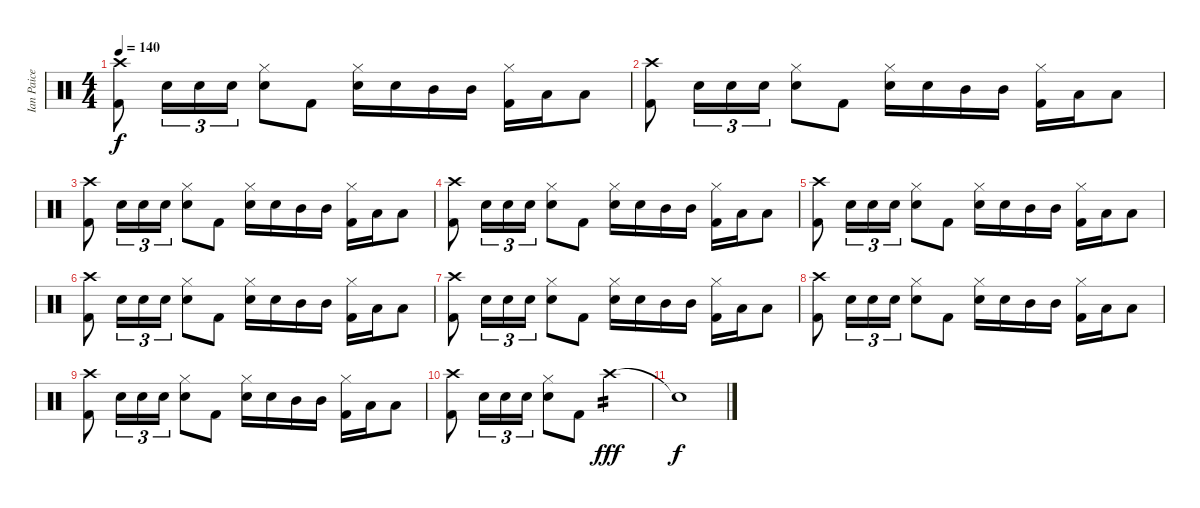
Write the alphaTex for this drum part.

\track ("Ian Paice" "Ian Paice") {instrument percussion}
\staff {score}
\articulation defaults
\ts (4 4)
\tempo 140
\clef neutral
\ks c
("Crash high (hit)" "Kick (hit) 2").8{dy f} "Snare (hit) 2".16{tu (3 2)} "Snare (hit) 2".16{tu (3 2)} "Snare (hit) 2".16{tu (3 2)} ("Hi-Hat (closed)" "Snare (hit) 2").8 "Kick (hit) 2".8 ("Hi-Hat (closed)" "Snare (hit) 2").16 "Snare (hit) 2".16 "Mid Tom (hit)".16 "Mid Tom (hit)".16 ("Hi-Hat (closed)" "Kick (hit) 2").16 "Low Tom (hit)".16 "Low Tom (hit)".8 |
("Crash high (hit)" "Kick (hit) 2").8 "Snare (hit) 2".16{tu (3 2)} "Snare (hit) 2".16{tu (3 2)} "Snare (hit) 2".16{tu (3 2)} ("Hi-Hat (closed)" "Snare (hit) 2").8 "Kick (hit) 2".8 ("Hi-Hat (closed)" "Snare (hit) 2").16 "Snare (hit) 2".16 "Mid Tom (hit)".16 "Mid Tom (hit)".16 ("Hi-Hat (closed)" "Kick (hit) 2").16 "Low Tom (hit)".16 "Low Tom (hit)".8 |
("Crash high (hit)" "Kick (hit) 2").8 "Snare (hit) 2".16{tu (3 2)} "Snare (hit) 2".16{tu (3 2)} "Snare (hit) 2".16{tu (3 2)} ("Hi-Hat (closed)" "Snare (hit) 2").8 "Kick (hit) 2".8 ("Hi-Hat (closed)" "Snare (hit) 2").16 "Snare (hit) 2".16 "Mid Tom (hit)".16 "Mid Tom (hit)".16 ("Hi-Hat (closed)" "Kick (hit) 2").16 "Low Tom (hit)".16 "Low Tom (hit)".8 |
("Crash high (hit)" "Kick (hit) 2").8 "Snare (hit) 2".16{tu (3 2)} "Snare (hit) 2".16{tu (3 2)} "Snare (hit) 2".16{tu (3 2)} ("Hi-Hat (closed)" "Snare (hit) 2").8 "Kick (hit) 2".8 ("Hi-Hat (closed)" "Snare (hit) 2").16 "Snare (hit) 2".16 "Mid Tom (hit)".16 "Mid Tom (hit)".16 ("Hi-Hat (closed)" "Kick (hit) 2").16 "Low Tom (hit)".16 "Low Tom (hit)".8 |
("Crash high (hit)" "Kick (hit) 2").8 "Snare (hit) 2".16{tu (3 2)} "Snare (hit) 2".16{tu (3 2)} "Snare (hit) 2".16{tu (3 2)} ("Hi-Hat (closed)" "Snare (hit) 2").8 "Kick (hit) 2".8 ("Hi-Hat (closed)" "Snare (hit) 2").16 "Snare (hit) 2".16 "Mid Tom (hit)".16 "Mid Tom (hit)".16 ("Hi-Hat (closed)" "Kick (hit) 2").16 "Low Tom (hit)".16 "Low Tom (hit)".8 |
("Crash high (hit)" "Kick (hit) 2").8 "Snare (hit) 2".16{tu (3 2)} "Snare (hit) 2".16{tu (3 2)} "Snare (hit) 2".16{tu (3 2)} ("Hi-Hat (closed)" "Snare (hit) 2").8 "Kick (hit) 2".8 ("Hi-Hat (closed)" "Snare (hit) 2").16 "Snare (hit) 2".16 "Mid Tom (hit)".16 "Mid Tom (hit)".16 ("Hi-Hat (closed)" "Kick (hit) 2").16 "Low Tom (hit)".16 "Low Tom (hit)".8 |
("Crash high (hit)" "Kick (hit) 2").8 "Snare (hit) 2".16{tu (3 2)} "Snare (hit) 2".16{tu (3 2)} "Snare (hit) 2".16{tu (3 2)} ("Hi-Hat (closed)" "Snare (hit) 2").8 "Kick (hit) 2".8 ("Hi-Hat (closed)" "Snare (hit) 2").16 "Snare (hit) 2".16 "Mid Tom (hit)".16 "Mid Tom (hit)".16 ("Hi-Hat (closed)" "Kick (hit) 2").16 "Low Tom (hit)".16 "Low Tom (hit)".8 |
("Crash high (hit)" "Kick (hit) 2").8 "Snare (hit) 2".16{tu (3 2)} "Snare (hit) 2".16{tu (3 2)} "Snare (hit) 2".16{tu (3 2)} ("Hi-Hat (closed)" "Snare (hit) 2").8 "Kick (hit) 2".8 ("Hi-Hat (closed)" "Snare (hit) 2").16 "Snare (hit) 2".16 "Mid Tom (hit)".16 "Mid Tom (hit)".16 ("Hi-Hat (closed)" "Kick (hit) 2").16 "Low Tom (hit)".16 "Low Tom (hit)".8 |
("Crash high (hit)" "Kick (hit) 2").8 "Snare (hit) 2".16{tu (3 2)} "Snare (hit) 2".16{tu (3 2)} "Snare (hit) 2".16{tu (3 2)} ("Hi-Hat (closed)" "Snare (hit) 2").8 "Kick (hit) 2".8 ("Hi-Hat (closed)" "Snare (hit) 2").16 "Snare (hit) 2".16 "Mid Tom (hit)".16 "Mid Tom (hit)".16 ("Hi-Hat (closed)" "Kick (hit) 2").16 "Low Tom (hit)".16 "Low Tom (hit)".8 |
("Crash high (hit)" "Kick (hit) 2").8 "Snare (hit) 2".16{tu (3 2)} "Snare (hit) 2".16{tu (3 2)} "Snare (hit) 2".16{tu (3 2)} ("Hi-Hat (closed)" "Snare (hit) 2").8 "Kick (hit) 2".8 "Crash high (hit)".2{tp 2 dy fff} |
"Snare (hit)"{t}.1{dy f}
